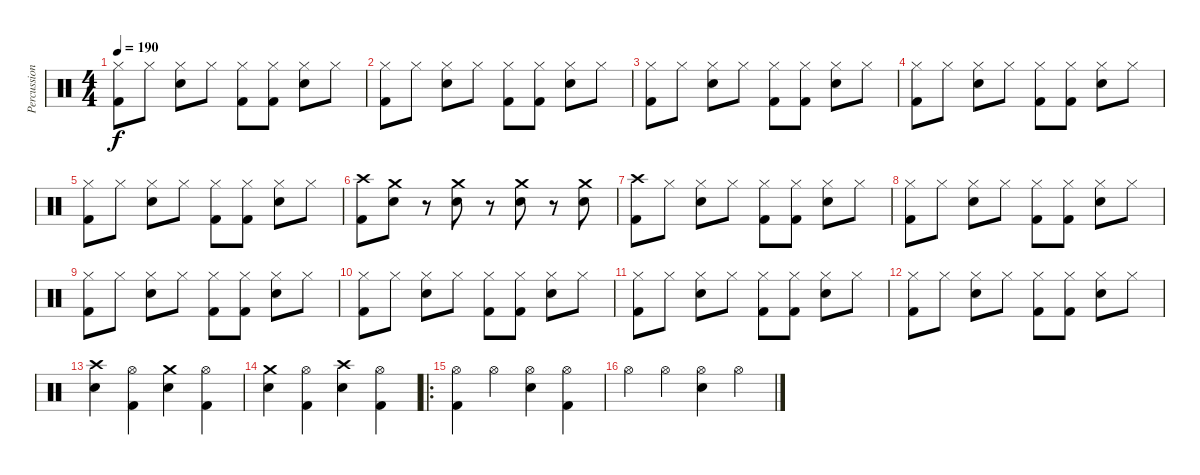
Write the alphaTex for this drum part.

\track ("Percussion" "Percussion") {instrument percussion}
\staff {score}
\articulation defaults
\ts (4 4)
\tempo 190
\clef neutral
\ks c
("Hi-Hat (closed)" "Kick (hit) 2").8{dy f} "Hi-Hat (closed)".8 ("Hi-Hat (closed)" "Electric Snare (hit)").8 "Hi-Hat (closed)".8 ("Hi-Hat (closed)" "Kick (hit) 2").8 ("Hi-Hat (closed)" "Kick (hit) 2").8 ("Hi-Hat (closed)" "Electric Snare (hit)").8 "Hi-Hat (closed)".8 |
("Hi-Hat (closed)" "Kick (hit) 2").8 "Hi-Hat (closed)".8 ("Hi-Hat (closed)" "Electric Snare (hit)").8 "Hi-Hat (closed)".8 ("Hi-Hat (closed)" "Kick (hit) 2").8 ("Hi-Hat (closed)" "Kick (hit) 2").8 ("Hi-Hat (closed)" "Electric Snare (hit)").8 "Hi-Hat (closed)".8 |
("Hi-Hat (closed)" "Kick (hit) 2").8 "Hi-Hat (closed)".8 ("Hi-Hat (closed)" "Electric Snare (hit)").8 "Hi-Hat (closed)".8 ("Hi-Hat (closed)" "Kick (hit) 2").8 ("Hi-Hat (closed)" "Kick (hit) 2").8 ("Hi-Hat (closed)" "Electric Snare (hit)").8 "Hi-Hat (closed)".8 |
("Hi-Hat (closed)" "Kick (hit) 2").8 "Hi-Hat (closed)".8 ("Hi-Hat (closed)" "Electric Snare (hit)").8 "Hi-Hat (closed)".8 ("Hi-Hat (closed)" "Kick (hit) 2").8 ("Hi-Hat (closed)" "Kick (hit) 2").8 ("Hi-Hat (closed)" "Electric Snare (hit)").8 "Hi-Hat (closed)".8 |
("Hi-Hat (closed)" "Kick (hit) 2").8 "Hi-Hat (closed)".8 ("Hi-Hat (closed)" "Electric Snare (hit)").8 "Hi-Hat (closed)".8 ("Hi-Hat (closed)" "Kick (hit) 2").8 ("Hi-Hat (closed)" "Kick (hit) 2").8 ("Hi-Hat (closed)" "Electric Snare (hit)").8 "Hi-Hat (closed)".8 |
("Crash high (hit)" "Kick (hit) 2").8 ("Crash medium (hit)" "Electric Snare (hit)").8 r.8 ("Crash medium (hit)" "Electric Snare (hit)").8 r.8 ("Crash medium (hit)" "Electric Snare (hit)").8 r.8 ("Crash medium (hit)" "Electric Snare (hit)").8 |
("Crash high (hit)" "Kick (hit) 2").8 "Hi-Hat (closed)".8 ("Hi-Hat (closed)" "Electric Snare (hit)").8 "Hi-Hat (closed)".8 ("Hi-Hat (closed)" "Kick (hit) 2").8 ("Hi-Hat (closed)" "Kick (hit) 2").8 ("Hi-Hat (closed)" "Electric Snare (hit)").8 "Hi-Hat (closed)".8 |
("Hi-Hat (closed)" "Kick (hit) 2").8 "Hi-Hat (closed)".8 ("Hi-Hat (closed)" "Electric Snare (hit)").8 "Hi-Hat (closed)".8 ("Hi-Hat (closed)" "Kick (hit) 2").8 ("Hi-Hat (closed)" "Kick (hit) 2").8 ("Hi-Hat (closed)" "Electric Snare (hit)").8 "Hi-Hat (closed)".8 |
("Hi-Hat (closed)" "Kick (hit) 2").8 "Hi-Hat (closed)".8 ("Hi-Hat (closed)" "Electric Snare (hit)").8 "Hi-Hat (closed)".8 ("Hi-Hat (closed)" "Kick (hit) 2").8 ("Hi-Hat (closed)" "Kick (hit) 2").8 ("Hi-Hat (closed)" "Electric Snare (hit)").8 "Hi-Hat (closed)".8 |
("Hi-Hat (closed)" "Kick (hit) 2").8 "Hi-Hat (closed)".8 ("Hi-Hat (closed)" "Electric Snare (hit)").8 "Hi-Hat (closed)".8 ("Hi-Hat (closed)" "Kick (hit) 2").8 ("Hi-Hat (closed)" "Kick (hit) 2").8 ("Hi-Hat (closed)" "Electric Snare (hit)").8 "Hi-Hat (closed)".8 |
("Hi-Hat (closed)" "Kick (hit) 2").8 "Hi-Hat (closed)".8 ("Hi-Hat (closed)" "Electric Snare (hit)").8 "Hi-Hat (closed)".8 ("Hi-Hat (closed)" "Kick (hit) 2").8 ("Hi-Hat (closed)" "Kick (hit) 2").8 ("Hi-Hat (closed)" "Electric Snare (hit)").8 "Hi-Hat (closed)".8 |
("Hi-Hat (closed)" "Kick (hit) 2").8 "Hi-Hat (closed)".8 ("Hi-Hat (closed)" "Electric Snare (hit)").8 "Hi-Hat (closed)".8 ("Hi-Hat (closed)" "Kick (hit) 2").8 ("Hi-Hat (closed)" "Kick (hit) 2").8 ("Hi-Hat (closed)" "Electric Snare (hit)").8 "Hi-Hat (closed)".8 |
("Crash high (hit)" "Electric Snare (hit)").4 ("Hi-Hat (open)" "Kick (hit) 2").4 ("Crash medium (hit)" "Electric Snare (hit)").4 ("Hi-Hat (open)" "Kick (hit) 2").4 |
("Crash medium (hit)" "Electric Snare (hit)").4 ("Hi-Hat (open)" "Kick (hit) 2").4 ("Crash high (hit)" "Electric Snare (hit)").4 ("Hi-Hat (open)" "Kick (hit) 2").4 |
\ro
("Hi-Hat (open)" "Kick (hit) 2").4 "Hi-Hat (open)".4 ("Hi-Hat (open)" "Electric Snare (hit)").4 ("Hi-Hat (open)" "Kick (hit) 2").4 |
"Hi-Hat (open)".4 "Hi-Hat (open)".4 ("Hi-Hat (open)" "Electric Snare (hit)").4 "Hi-Hat (open)".4
